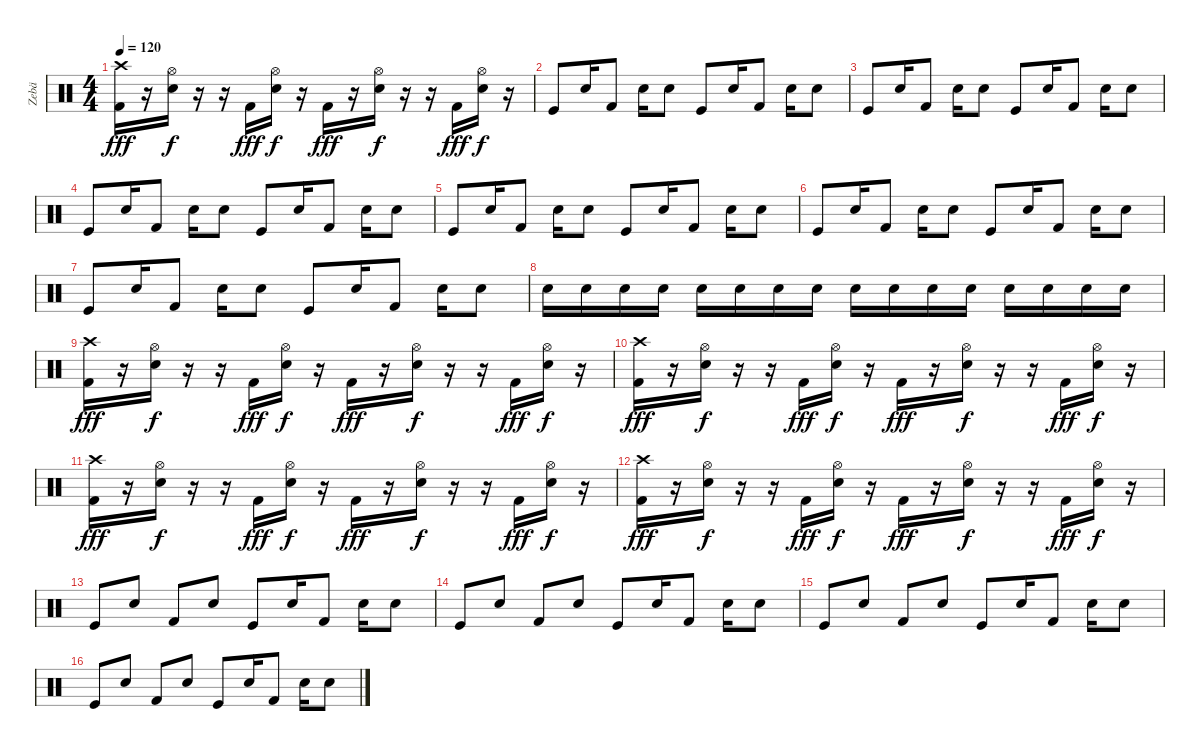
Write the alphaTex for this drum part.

\track ("Zebä" "Zebä") {instrument percussion}
\staff {score}
\articulation defaults
\ts (4 4)
\tempo 120
\clef neutral
\ks c
("Kick (hit) 2" "Crash high (hit)").16{dy fff} r.16 ("Electric Snare (hit)" "Hi-Hat (open)").16{dy f} r.16 r.16 "Kick (hit) 2".16{dy fff} ("Electric Snare (hit)" "Hi-Hat (open)").16{dy f} r.16 "Kick (hit) 2".16{dy fff} r.16 ("Electric Snare (hit)" "Hi-Hat (open)").16{dy f} r.16 r.16 "Kick (hit) 2".16{dy fff} ("Electric Snare (hit)" "Hi-Hat (open)").16{dy f} r.16 |
"Kick (hit)".8 "Snare (hit) 2".16 "Kick (hit) 2".8 "Electric Snare (hit)".16 "Snare (hit) 2".8 "Kick (hit)".8 "Snare (hit) 2".16 "Kick (hit) 2".8 "Electric Snare (hit)".16 "Snare (hit) 2".8 |
"Kick (hit)".8 "Snare (hit) 2".16 "Kick (hit) 2".8 "Electric Snare (hit)".16 "Snare (hit) 2".8 "Kick (hit)".8 "Snare (hit) 2".16 "Kick (hit) 2".8 "Electric Snare (hit)".16 "Snare (hit) 2".8 |
"Kick (hit)".8 "Snare (hit) 2".16 "Kick (hit) 2".8 "Electric Snare (hit)".16 "Snare (hit) 2".8 "Kick (hit)".8 "Snare (hit) 2".16 "Kick (hit) 2".8 "Electric Snare (hit)".16 "Snare (hit) 2".8 |
"Kick (hit)".8 "Snare (hit) 2".16 "Kick (hit) 2".8 "Electric Snare (hit)".16 "Snare (hit) 2".8 "Kick (hit)".8 "Snare (hit) 2".16 "Kick (hit) 2".8 "Electric Snare (hit)".16 "Snare (hit) 2".8 |
"Kick (hit)".8 "Snare (hit) 2".16 "Kick (hit) 2".8 "Electric Snare (hit)".16 "Snare (hit) 2".8 "Kick (hit)".8 "Snare (hit) 2".16 "Kick (hit) 2".8 "Electric Snare (hit)".16 "Snare (hit) 2".8 |
"Kick (hit)".8 "Snare (hit) 2".16 "Kick (hit) 2".8 "Electric Snare (hit)".16 "Snare (hit) 2".8 "Kick (hit)".8 "Snare (hit) 2".16 "Kick (hit) 2".8 "Electric Snare (hit)".16 "Snare (hit) 2".8 |
"Snare (hit) 2".16 "Snare (hit) 2".16 "Snare (hit) 2".16 "Snare (hit) 2".16 "Snare (hit) 2".16 "Snare (hit) 2".16 "Snare (hit) 2".16 "Snare (hit) 2".16 "Electric Snare (hit)".16 "Electric Snare (hit)".16 "Electric Snare (hit)".16 "Electric Snare (hit)".16 "Electric Snare (hit)".16 "Electric Snare (hit)".16 "Electric Snare (hit)".16 "Electric Snare (hit)".16 |
("Kick (hit) 2" "Crash high (hit)").16{dy fff} r.16 ("Electric Snare (hit)" "Hi-Hat (open)").16{dy f} r.16 r.16 "Kick (hit) 2".16{dy fff} ("Electric Snare (hit)" "Hi-Hat (open)").16{dy f} r.16 "Kick (hit) 2".16{dy fff} r.16 ("Electric Snare (hit)" "Hi-Hat (open)").16{dy f} r.16 r.16 "Kick (hit) 2".16{dy fff} ("Electric Snare (hit)" "Hi-Hat (open)").16{dy f} r.16 |
("Kick (hit) 2" "Crash high (hit)").16{dy fff} r.16 ("Electric Snare (hit)" "Hi-Hat (open)").16{dy f} r.16 r.16 "Kick (hit) 2".16{dy fff} ("Electric Snare (hit)" "Hi-Hat (open)").16{dy f} r.16 "Kick (hit) 2".16{dy fff} r.16 ("Electric Snare (hit)" "Hi-Hat (open)").16{dy f} r.16 r.16 "Kick (hit) 2".16{dy fff} ("Electric Snare (hit)" "Hi-Hat (open)").16{dy f} r.16 |
("Kick (hit) 2" "Crash high (hit)").16{dy fff} r.16 ("Electric Snare (hit)" "Hi-Hat (open)").16{dy f} r.16 r.16 "Kick (hit) 2".16{dy fff} ("Electric Snare (hit)" "Hi-Hat (open)").16{dy f} r.16 "Kick (hit) 2".16{dy fff} r.16 ("Electric Snare (hit)" "Hi-Hat (open)").16{dy f} r.16 r.16 "Kick (hit) 2".16{dy fff} ("Electric Snare (hit)" "Hi-Hat (open)").16{dy f} r.16 |
("Kick (hit) 2" "Crash high (hit)").16{dy fff} r.16 ("Electric Snare (hit)" "Hi-Hat (open)").16{dy f} r.16 r.16 "Kick (hit) 2".16{dy fff} ("Electric Snare (hit)" "Hi-Hat (open)").16{dy f} r.16 "Kick (hit) 2".16{dy fff} r.16 ("Electric Snare (hit)" "Hi-Hat (open)").16{dy f} r.16 r.16 "Kick (hit) 2".16{dy fff} ("Electric Snare (hit)" "Hi-Hat (open)").16{dy f} r.16 |
"Kick (hit)".8 "Snare (hit) 2".8 "Kick (hit) 2".8 "Electric Snare (hit)".8 "Kick (hit)".8 "Snare (hit) 2".16 "Kick (hit) 2".8 "Electric Snare (hit)".16 "Snare (hit) 2".8 |
"Kick (hit)".8 "Snare (hit) 2".8 "Kick (hit) 2".8 "Electric Snare (hit)".8 "Kick (hit)".8 "Snare (hit) 2".16 "Kick (hit) 2".8 "Electric Snare (hit)".16 "Snare (hit) 2".8 |
"Kick (hit)".8 "Snare (hit) 2".8 "Kick (hit) 2".8 "Electric Snare (hit)".8 "Kick (hit)".8 "Snare (hit) 2".16 "Kick (hit) 2".8 "Electric Snare (hit)".16 "Snare (hit) 2".8 |
"Kick (hit)".8 "Snare (hit) 2".8 "Kick (hit) 2".8 "Electric Snare (hit)".8 "Kick (hit)".8 "Snare (hit) 2".16 "Kick (hit) 2".8 "Electric Snare (hit)".16 "Snare (hit) 2".8
